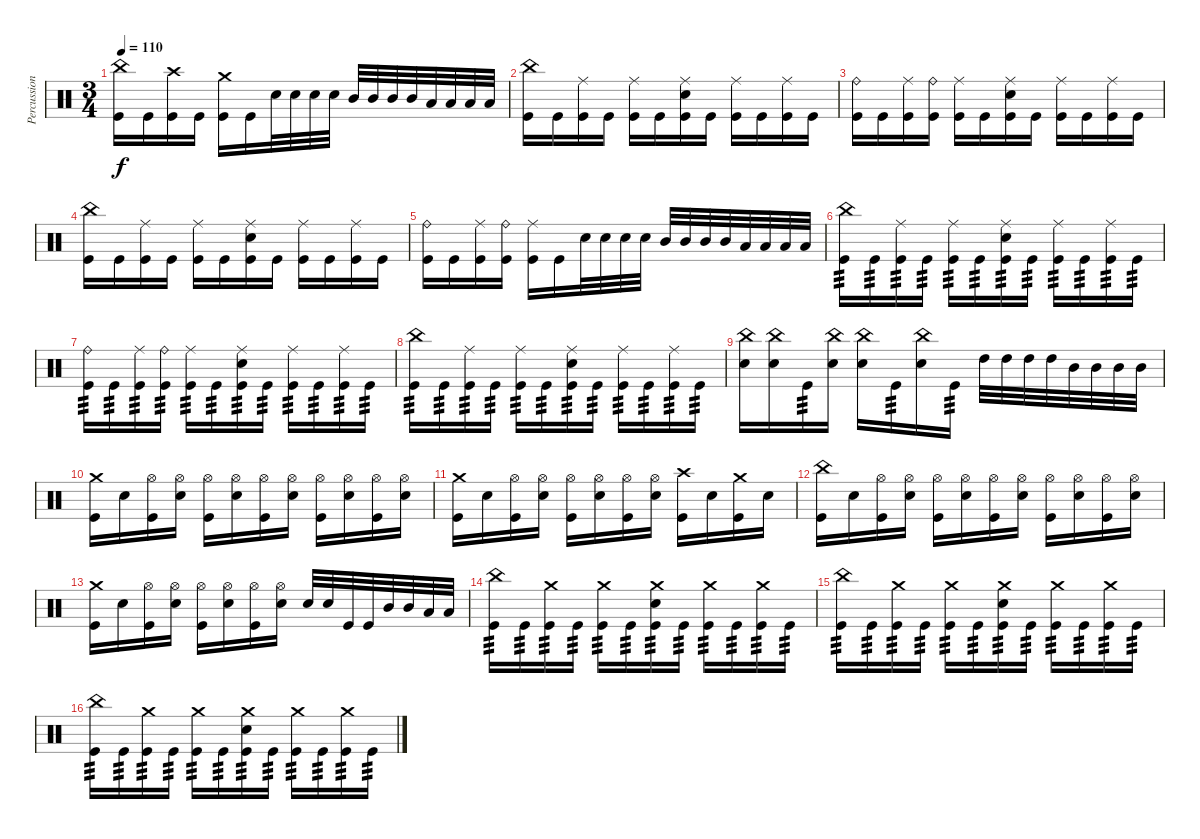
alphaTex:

\track ("Percussion" "Percussion") {instrument percussion}
\staff {score}
\articulation defaults
\ts (3 4)
\tempo 110
\clef neutral
\ks c
("China (hit)" "Kick (hit)").16{dy f} "Kick (hit)".16 ("Crash high (hit)" "Kick (hit)").16 "Kick (hit)".16 ("Crash medium (hit)" "Kick (hit)").16 "Kick (hit)".16 "Electric Snare (hit)".32 "Electric Snare (hit)".32 "Electric Snare (hit)".32 "Electric Snare (hit)".32 "Mid Tom (hit)".32 "Mid Tom (hit)".32 "Mid Tom (hit)".32 "Mid Tom (hit)".32 "Low Tom (hit)".32 "Low Tom (hit)".32 "Low Tom (hit)".32 "Low Tom (hit)".32 |
("China (hit)" "Kick (hit)").16 "Kick (hit)".16 ("Ride (middle)" "Kick (hit)").16 "Kick (hit)".16 ("Ride (middle)" "Kick (hit)").16 "Kick (hit)".16 ("Ride (middle)" "Electric Snare (hit)" "Kick (hit)").16 "Kick (hit)".16 ("Ride (middle)" "Kick (hit)").16 "Kick (hit)".16 ("Ride (middle)" "Kick (hit)").16 "Kick (hit)".16 |
("Ride (bell)" "Kick (hit)").16 "Kick (hit)".16 ("Ride (middle)" "Kick (hit)").16 ("Ride (bell)" "Kick (hit)").16 ("Ride (middle)" "Kick (hit)").16 "Kick (hit)".16 ("Ride (middle)" "Electric Snare (hit)" "Kick (hit)").16 "Kick (hit)".16 ("Ride (middle)" "Kick (hit)").16 "Kick (hit)".16 ("Ride (middle)" "Kick (hit)").16 "Kick (hit)".16 |
("China (hit)" "Kick (hit)").16 "Kick (hit)".16 ("Ride (middle)" "Kick (hit)").16 "Kick (hit)".16 ("Ride (middle)" "Kick (hit)").16 "Kick (hit)".16 ("Ride (middle)" "Electric Snare (hit)" "Kick (hit)").16 "Kick (hit)".16 ("Ride (middle)" "Kick (hit)").16 "Kick (hit)".16 ("Ride (middle)" "Kick (hit)").16 "Kick (hit)".16 |
("Ride (bell)" "Kick (hit)").16 "Kick (hit)".16 ("Ride (middle)" "Kick (hit)").16 ("Ride (bell)" "Kick (hit)").16 ("Ride (middle)" "Kick (hit)").16 "Kick (hit)".16 "Electric Snare (hit)".32 "Electric Snare (hit)".32 "Electric Snare (hit)".32 "Electric Snare (hit)".32 "Mid Tom (hit)".32 "Mid Tom (hit)".32 "Mid Tom (hit)".32 "Mid Tom (hit)".32 "Low Tom (hit)".32 "Low Tom (hit)".32 "Low Tom (hit)".32 "Low Tom (hit)".32 |
("China (hit)" "Kick (hit)").16{tp 3} "Kick (hit)".16{tp 3} ("Ride (middle)" "Kick (hit)").16{tp 3} "Kick (hit)".16{tp 3} ("Ride (middle)" "Kick (hit)").16{tp 3} "Kick (hit)".16{tp 3} ("Ride (middle)" "Electric Snare (hit)" "Kick (hit)").16{tp 3} "Kick (hit)".16{tp 3} ("Ride (middle)" "Kick (hit)").16{tp 3} "Kick (hit)".16{tp 3} ("Ride (middle)" "Kick (hit)").16{tp 3} "Kick (hit)".16{tp 3} |
("Ride (bell)" "Kick (hit)").16{tp 3} "Kick (hit)".16{tp 3} ("Ride (middle)" "Kick (hit)").16{tp 3} ("Ride (bell)" "Kick (hit)").16{tp 3} ("Ride (middle)" "Kick (hit)").16{tp 3} "Kick (hit)".16{tp 3} ("Ride (middle)" "Electric Snare (hit)" "Kick (hit)").16{tp 3} "Kick (hit)".16{tp 3} ("Ride (middle)" "Kick (hit)").16{tp 3} "Kick (hit)".16{tp 3} ("Ride (middle)" "Kick (hit)").16{tp 3} "Kick (hit)".16{tp 3} |
("China (hit)" "Kick (hit)").16{tp 3} "Kick (hit)".16{tp 3} ("Ride (middle)" "Kick (hit)").16{tp 3} "Kick (hit)".16{tp 3} ("Ride (middle)" "Kick (hit)").16{tp 3} "Kick (hit)".16{tp 3} ("Ride (middle)" "Electric Snare (hit)" "Kick (hit)").16{tp 3} "Kick (hit)".16{tp 3} ("Ride (middle)" "Kick (hit)").16{tp 3} "Kick (hit)".16{tp 3} ("Ride (middle)" "Kick (hit)").16{tp 3} "Kick (hit)".16{tp 3} |
("China (hit)" "Electric Snare (hit)").16 ("China (hit)" "Electric Snare (hit)").16 "Kick (hit)".16{tp 3} ("China (hit)" "Electric Snare (hit)").16 ("China (hit)" "Electric Snare (hit)").16 "Kick (hit)".16{tp 3} ("China (hit)" "Electric Snare (hit)").16 "Kick (hit)".16{tp 3} "High Tom (hit)".32 "High Tom (hit)".32 "High Tom (hit)".32 "High Tom (hit)".32 "Mid Tom (hit)".32 "Mid Tom (hit)".32 "Mid Tom (hit)".32 "Mid Tom (hit)".32 |
("Crash medium (hit)" "Kick (hit)").16 "Electric Snare (hit)".16 ("Hi-Hat (open)" "Kick (hit)").16 ("Hi-Hat (open)" "Electric Snare (hit)").16 ("Hi-Hat (open)" "Kick (hit)").16 ("Hi-Hat (open)" "Electric Snare (hit)").16 ("Hi-Hat (open)" "Kick (hit)").16 ("Hi-Hat (open)" "Electric Snare (hit)").16 ("Hi-Hat (open)" "Kick (hit)").16 ("Hi-Hat (open)" "Electric Snare (hit)").16 ("Hi-Hat (open)" "Kick (hit)").16 ("Hi-Hat (open)" "Electric Snare (hit)").16 |
("Crash medium (hit)" "Kick (hit)").16 "Electric Snare (hit)".16 ("Hi-Hat (open)" "Kick (hit)").16 ("Hi-Hat (open)" "Electric Snare (hit)").16 ("Hi-Hat (open)" "Kick (hit)").16 ("Hi-Hat (open)" "Electric Snare (hit)").16 ("Hi-Hat (open)" "Kick (hit)").16 ("Hi-Hat (open)" "Electric Snare (hit)").16 ("Crash high (hit)" "Kick (hit)").16 "Electric Snare (hit)".16 ("Crash medium (hit)" "Kick (hit)").16 "Electric Snare (hit)".16 |
("China (hit)" "Kick (hit)").16 "Electric Snare (hit)".16 ("Hi-Hat (open)" "Kick (hit)").16 ("Hi-Hat (open)" "Electric Snare (hit)").16 ("Hi-Hat (open)" "Kick (hit)").16 ("Hi-Hat (open)" "Electric Snare (hit)").16 ("Hi-Hat (open)" "Kick (hit)").16 ("Hi-Hat (open)" "Electric Snare (hit)").16 ("Hi-Hat (open)" "Kick (hit)").16 ("Hi-Hat (open)" "Electric Snare (hit)").16 ("Hi-Hat (open)" "Kick (hit)").16 ("Hi-Hat (open)" "Electric Snare (hit)").16 |
("Crash medium (hit)" "Kick (hit)").16 "Electric Snare (hit)".16 ("Hi-Hat (open)" "Kick (hit)").16 ("Hi-Hat (open)" "Electric Snare (hit)").16 ("Hi-Hat (open)" "Kick (hit)").16 ("Hi-Hat (open)" "Electric Snare (hit)").16 ("Hi-Hat (open)" "Kick (hit)").16 ("Hi-Hat (open)" "Electric Snare (hit)").16 "Electric Snare (hit)".32 "Electric Snare (hit)".32 "Kick (hit)".32 "Kick (hit)".32 "Mid Tom (hit)".32 "Mid Tom (hit)".32 "Low Tom (hit)".32 "Low Tom (hit)".32 |
("China (hit)" "Kick (hit)").16{tp 3} "Kick (hit)".16{tp 3} ("Crash medium (hit)" "Kick (hit)").16{tp 3} "Kick (hit)".16{tp 3} ("Crash medium (hit)" "Kick (hit)").16{tp 3} "Kick (hit)".16{tp 3} ("Crash medium (hit)" "Electric Snare (hit)" "Kick (hit)").16{tp 3} "Kick (hit)".16{tp 3} ("Crash medium (hit)" "Kick (hit)").16{tp 3} "Kick (hit)".16{tp 3} ("Crash medium (hit)" "Kick (hit)").16{tp 3} "Kick (hit)".16{tp 3} |
("China (hit)" "Kick (hit)").16{tp 3} "Kick (hit)".16{tp 3} ("Crash medium (hit)" "Kick (hit)").16{tp 3} "Kick (hit)".16{tp 3} ("Crash medium (hit)" "Kick (hit)").16{tp 3} "Kick (hit)".16{tp 3} ("Crash medium (hit)" "Electric Snare (hit)" "Kick (hit)").16{tp 3} "Kick (hit)".16{tp 3} ("Crash medium (hit)" "Kick (hit)").16{tp 3} "Kick (hit)".16{tp 3} ("Crash medium (hit)" "Kick (hit)").16{tp 3} "Kick (hit)".16{tp 3} |
("China (hit)" "Kick (hit)").16{tp 3} "Kick (hit)".16{tp 3} ("Crash medium (hit)" "Kick (hit)").16{tp 3} "Kick (hit)".16{tp 3} ("Crash medium (hit)" "Kick (hit)").16{tp 3} "Kick (hit)".16{tp 3} ("Crash medium (hit)" "Electric Snare (hit)" "Kick (hit)").16{tp 3} "Kick (hit)".16{tp 3} ("Crash medium (hit)" "Kick (hit)").16{tp 3} "Kick (hit)".16{tp 3} ("Crash medium (hit)" "Kick (hit)").16{tp 3} "Kick (hit)".16{tp 3}
